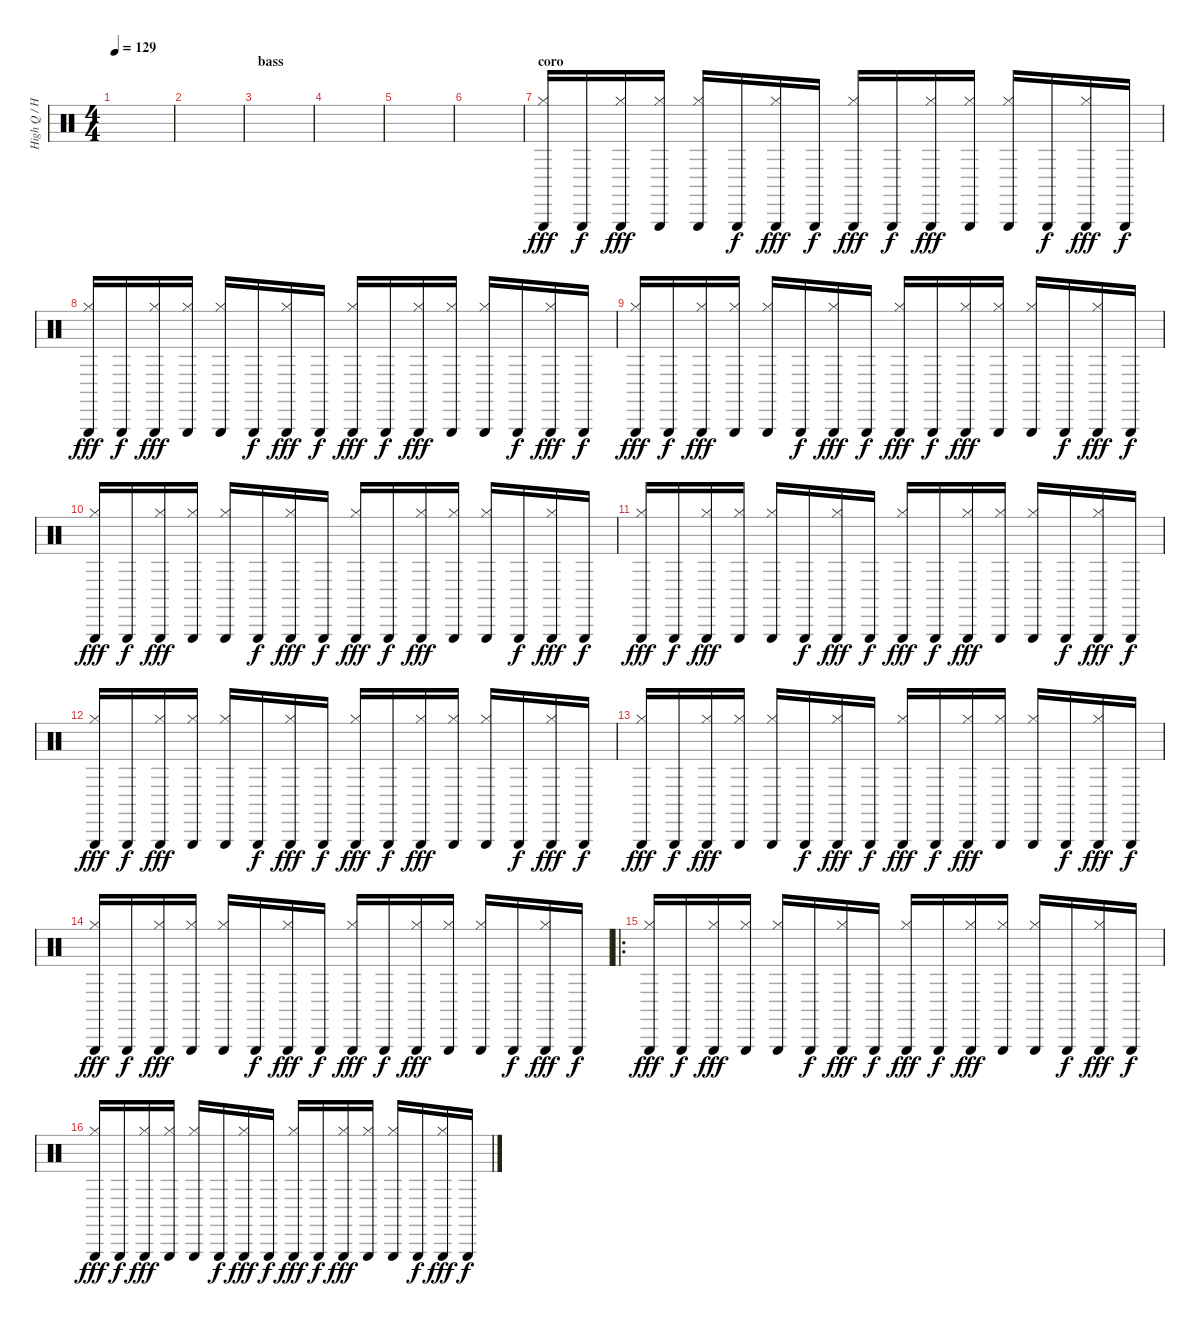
\track ("High Q / Hats" "High Q / H") {instrument percussion}
\staff {score}
\articulation defaults
\ts (4 4)
\tempo 129
\clef neutral
\ks c
|
|
\section ("" "bass")
|
|
|
|
\section ("" "coro")
("Triangle (hit)" "Hi-Hat (closed)").16{dy fff} "Triangle (hit)".16{dy f} ("Triangle (hit)" "Hi-Hat (closed)").16{dy fff} ("Triangle (hit)" "Hi-Hat (closed)").16 ("Triangle (hit)" "Hi-Hat (closed)").16 "Triangle (hit)".16{dy f} ("Triangle (hit)" "Hi-Hat (closed)").16{dy fff} "Triangle (hit)".16{dy f} ("Triangle (hit)" "Hi-Hat (closed)").16{dy fff} "Triangle (hit)".16{dy f} ("Triangle (hit)" "Hi-Hat (closed)").16{dy fff} ("Triangle (hit)" "Hi-Hat (closed)").16 ("Triangle (hit)" "Hi-Hat (closed)").16 "Triangle (hit)".16{dy f} ("Triangle (hit)" "Hi-Hat (closed)").16{dy fff} "Triangle (hit)".16{dy f} |
("Triangle (hit)" "Hi-Hat (closed)").16{dy fff} "Triangle (hit)".16{dy f} ("Triangle (hit)" "Hi-Hat (closed)").16{dy fff} ("Triangle (hit)" "Hi-Hat (closed)").16 ("Triangle (hit)" "Hi-Hat (closed)").16 "Triangle (hit)".16{dy f} ("Triangle (hit)" "Hi-Hat (closed)").16{dy fff} "Triangle (hit)".16{dy f} ("Triangle (hit)" "Hi-Hat (closed)").16{dy fff} "Triangle (hit)".16{dy f} ("Triangle (hit)" "Hi-Hat (closed)").16{dy fff} ("Triangle (hit)" "Hi-Hat (closed)").16 ("Triangle (hit)" "Hi-Hat (closed)").16 "Triangle (hit)".16{dy f} ("Triangle (hit)" "Hi-Hat (closed)").16{dy fff} "Triangle (hit)".16{dy f} |
("Triangle (hit)" "Hi-Hat (closed)").16{dy fff} "Triangle (hit)".16{dy f} ("Triangle (hit)" "Hi-Hat (closed)").16{dy fff} ("Triangle (hit)" "Hi-Hat (closed)").16 ("Triangle (hit)" "Hi-Hat (closed)").16 "Triangle (hit)".16{dy f} ("Triangle (hit)" "Hi-Hat (closed)").16{dy fff} "Triangle (hit)".16{dy f} ("Triangle (hit)" "Hi-Hat (closed)").16{dy fff} "Triangle (hit)".16{dy f} ("Triangle (hit)" "Hi-Hat (closed)").16{dy fff} ("Triangle (hit)" "Hi-Hat (closed)").16 ("Triangle (hit)" "Hi-Hat (closed)").16 "Triangle (hit)".16{dy f} ("Triangle (hit)" "Hi-Hat (closed)").16{dy fff} "Triangle (hit)".16{dy f} |
("Triangle (hit)" "Hi-Hat (closed)").16{dy fff} "Triangle (hit)".16{dy f} ("Triangle (hit)" "Hi-Hat (closed)").16{dy fff} ("Triangle (hit)" "Hi-Hat (closed)").16 ("Triangle (hit)" "Hi-Hat (closed)").16 "Triangle (hit)".16{dy f} ("Triangle (hit)" "Hi-Hat (closed)").16{dy fff} "Triangle (hit)".16{dy f} ("Triangle (hit)" "Hi-Hat (closed)").16{dy fff} "Triangle (hit)".16{dy f} ("Triangle (hit)" "Hi-Hat (closed)").16{dy fff} ("Triangle (hit)" "Hi-Hat (closed)").16 ("Triangle (hit)" "Hi-Hat (closed)").16 "Triangle (hit)".16{dy f} ("Triangle (hit)" "Hi-Hat (closed)").16{dy fff} "Triangle (hit)".16{dy f} |
("Triangle (hit)" "Hi-Hat (closed)").16{dy fff} "Triangle (hit)".16{dy f} ("Triangle (hit)" "Hi-Hat (closed)").16{dy fff} ("Triangle (hit)" "Hi-Hat (closed)").16 ("Triangle (hit)" "Hi-Hat (closed)").16 "Triangle (hit)".16{dy f} ("Triangle (hit)" "Hi-Hat (closed)").16{dy fff} "Triangle (hit)".16{dy f} ("Triangle (hit)" "Hi-Hat (closed)").16{dy fff} "Triangle (hit)".16{dy f} ("Triangle (hit)" "Hi-Hat (closed)").16{dy fff} ("Triangle (hit)" "Hi-Hat (closed)").16 ("Triangle (hit)" "Hi-Hat (closed)").16 "Triangle (hit)".16{dy f} ("Triangle (hit)" "Hi-Hat (closed)").16{dy fff} "Triangle (hit)".16{dy f} |
("Triangle (hit)" "Hi-Hat (closed)").16{dy fff} "Triangle (hit)".16{dy f} ("Triangle (hit)" "Hi-Hat (closed)").16{dy fff} ("Triangle (hit)" "Hi-Hat (closed)").16 ("Triangle (hit)" "Hi-Hat (closed)").16 "Triangle (hit)".16{dy f} ("Triangle (hit)" "Hi-Hat (closed)").16{dy fff} "Triangle (hit)".16{dy f} ("Triangle (hit)" "Hi-Hat (closed)").16{dy fff} "Triangle (hit)".16{dy f} ("Triangle (hit)" "Hi-Hat (closed)").16{dy fff} ("Triangle (hit)" "Hi-Hat (closed)").16 ("Triangle (hit)" "Hi-Hat (closed)").16 "Triangle (hit)".16{dy f} ("Triangle (hit)" "Hi-Hat (closed)").16{dy fff} "Triangle (hit)".16{dy f} |
("Triangle (hit)" "Hi-Hat (closed)").16{dy fff} "Triangle (hit)".16{dy f} ("Triangle (hit)" "Hi-Hat (closed)").16{dy fff} ("Triangle (hit)" "Hi-Hat (closed)").16 ("Triangle (hit)" "Hi-Hat (closed)").16 "Triangle (hit)".16{dy f} ("Triangle (hit)" "Hi-Hat (closed)").16{dy fff} "Triangle (hit)".16{dy f} ("Triangle (hit)" "Hi-Hat (closed)").16{dy fff} "Triangle (hit)".16{dy f} ("Triangle (hit)" "Hi-Hat (closed)").16{dy fff} ("Triangle (hit)" "Hi-Hat (closed)").16 ("Triangle (hit)" "Hi-Hat (closed)").16 "Triangle (hit)".16{dy f} ("Triangle (hit)" "Hi-Hat (closed)").16{dy fff} "Triangle (hit)".16{dy f} |
("Triangle (hit)" "Hi-Hat (closed)").16{dy fff} "Triangle (hit)".16{dy f} ("Triangle (hit)" "Hi-Hat (closed)").16{dy fff} ("Triangle (hit)" "Hi-Hat (closed)").16 ("Triangle (hit)" "Hi-Hat (closed)").16 "Triangle (hit)".16{dy f} ("Triangle (hit)" "Hi-Hat (closed)").16{dy fff} "Triangle (hit)".16{dy f} ("Triangle (hit)" "Hi-Hat (closed)").16{dy fff} "Triangle (hit)".16{dy f} ("Triangle (hit)" "Hi-Hat (closed)").16{dy fff} ("Triangle (hit)" "Hi-Hat (closed)").16 ("Triangle (hit)" "Hi-Hat (closed)").16 "Triangle (hit)".16{dy f} ("Triangle (hit)" "Hi-Hat (closed)").16{dy fff} "Triangle (hit)".16{dy f} |
\ro
("Triangle (hit)" "Hi-Hat (closed)").16{dy fff} "Triangle (hit)".16{dy f} ("Triangle (hit)" "Hi-Hat (closed)").16{dy fff} ("Triangle (hit)" "Hi-Hat (closed)").16 ("Triangle (hit)" "Hi-Hat (closed)").16 "Triangle (hit)".16{dy f} ("Triangle (hit)" "Hi-Hat (closed)").16{dy fff} "Triangle (hit)".16{dy f} ("Triangle (hit)" "Hi-Hat (closed)").16{dy fff} "Triangle (hit)".16{dy f} ("Triangle (hit)" "Hi-Hat (closed)").16{dy fff} ("Triangle (hit)" "Hi-Hat (closed)").16 ("Triangle (hit)" "Hi-Hat (closed)").16 "Triangle (hit)".16{dy f} ("Triangle (hit)" "Hi-Hat (closed)").16{dy fff} "Triangle (hit)".16{dy f} |
("Triangle (hit)" "Hi-Hat (closed)").16{dy fff} "Triangle (hit)".16{dy f} ("Triangle (hit)" "Hi-Hat (closed)").16{dy fff} ("Triangle (hit)" "Hi-Hat (closed)").16 ("Triangle (hit)" "Hi-Hat (closed)").16 "Triangle (hit)".16{dy f} ("Triangle (hit)" "Hi-Hat (closed)").16{dy fff} "Triangle (hit)".16{dy f} ("Triangle (hit)" "Hi-Hat (closed)").16{dy fff} "Triangle (hit)".16{dy f} ("Triangle (hit)" "Hi-Hat (closed)").16{dy fff} ("Triangle (hit)" "Hi-Hat (closed)").16 ("Triangle (hit)" "Hi-Hat (closed)").16 "Triangle (hit)".16{dy f} ("Triangle (hit)" "Hi-Hat (closed)").16{dy fff} "Triangle (hit)".16{dy f}
